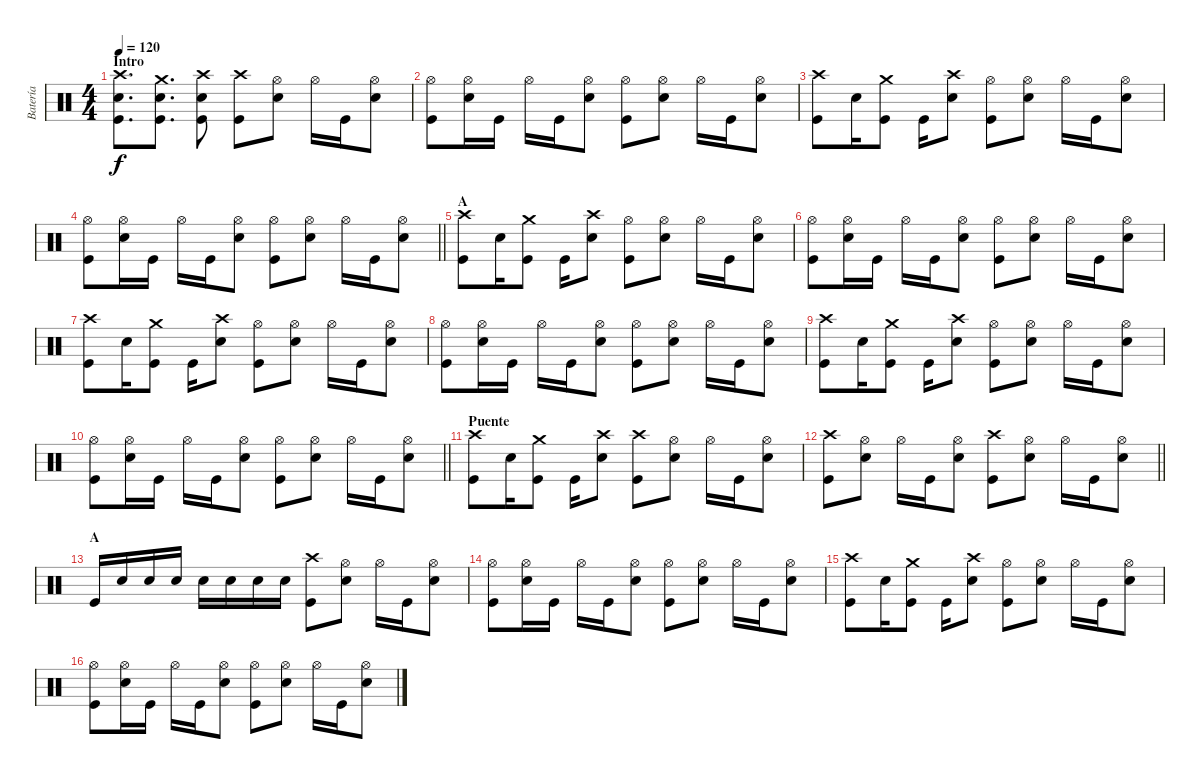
\track ("Batería" "Batería") {instrument percussion}
\staff {score}
\articulation defaults
\ts (4 4)
\section ("" "Intro")
\tempo 120
\clef neutral
\ks c
("Crash high (hit)" "Snare (hit) 2" "Kick (hit)").8{d dy f} ("Crash medium (hit)" "Snare (hit) 2" "Kick (hit)").8{d} ("Crash high (hit)" "Snare (hit) 2" "Kick (hit)").8 ("Crash high (hit)" "Kick (hit)").8 ("Hi-Hat (open)" "Snare (hit) 2").8 "Hi-Hat (open)".16 "Kick (hit)".16 ("Hi-Hat (open)" "Snare (hit) 2").8 |
("Hi-Hat (open)" "Kick (hit)").8 ("Hi-Hat (open)" "Snare (hit) 2").16 "Kick (hit)".16 "Hi-Hat (open)".16 "Kick (hit)".16 ("Hi-Hat (open)" "Snare (hit) 2").8 ("Hi-Hat (open)" "Kick (hit)").8 ("Hi-Hat (open)" "Snare (hit) 2").8 "Hi-Hat (open)".16 "Kick (hit)".16 ("Hi-Hat (open)" "Snare (hit) 2").8 |
("Crash high (hit)" "Kick (hit)").8 "Snare (hit) 2".16 ("Crash medium (hit)" "Kick (hit)").8 "Kick (hit)".16 ("Crash high (hit)" "Snare (hit) 2").8 ("Hi-Hat (open)" "Kick (hit)").8 ("Hi-Hat (open)" "Snare (hit) 2").8 "Hi-Hat (open)".16 "Kick (hit)".16 ("Hi-Hat (open)" "Snare (hit) 2").8 |
\barLineRight lightlight
("Hi-Hat (open)" "Kick (hit)").8 ("Hi-Hat (open)" "Snare (hit) 2").16 "Kick (hit)".16 "Hi-Hat (open)".16 "Kick (hit)".16 ("Hi-Hat (open)" "Snare (hit) 2").8 ("Hi-Hat (open)" "Kick (hit)").8 ("Hi-Hat (open)" "Snare (hit) 2").8 "Hi-Hat (open)".16 "Kick (hit)".16 ("Hi-Hat (open)" "Snare (hit) 2").8 |
\section ("" "A")
("Crash high (hit)" "Kick (hit)").8 "Snare (hit) 2".16 ("Crash medium (hit)" "Kick (hit)").8 "Kick (hit)".16 ("Crash high (hit)" "Snare (hit) 2").8 ("Hi-Hat (open)" "Kick (hit)").8 ("Hi-Hat (open)" "Snare (hit) 2").8 "Hi-Hat (open)".16 "Kick (hit)".16 ("Hi-Hat (open)" "Snare (hit) 2").8 |
("Hi-Hat (open)" "Kick (hit)").8 ("Hi-Hat (open)" "Snare (hit) 2").16 "Kick (hit)".16 "Hi-Hat (open)".16 "Kick (hit)".16 ("Hi-Hat (open)" "Snare (hit) 2").8 ("Hi-Hat (open)" "Kick (hit)").8 ("Hi-Hat (open)" "Snare (hit) 2").8 "Hi-Hat (open)".16 "Kick (hit)".16 ("Hi-Hat (open)" "Snare (hit) 2").8 |
("Crash high (hit)" "Kick (hit)").8 "Snare (hit) 2".16 ("Crash medium (hit)" "Kick (hit)").8 "Kick (hit)".16 ("Crash high (hit)" "Snare (hit) 2").8 ("Hi-Hat (open)" "Kick (hit)").8 ("Hi-Hat (open)" "Snare (hit) 2").8 "Hi-Hat (open)".16 "Kick (hit)".16 ("Hi-Hat (open)" "Snare (hit) 2").8 |
("Hi-Hat (open)" "Kick (hit)").8 ("Hi-Hat (open)" "Snare (hit) 2").16 "Kick (hit)".16 "Hi-Hat (open)".16 "Kick (hit)".16 ("Hi-Hat (open)" "Snare (hit) 2").8 ("Hi-Hat (open)" "Kick (hit)").8 ("Hi-Hat (open)" "Snare (hit) 2").8 "Hi-Hat (open)".16 "Kick (hit)".16 ("Hi-Hat (open)" "Snare (hit) 2").8 |
("Crash high (hit)" "Kick (hit)").8 "Snare (hit) 2".16 ("Crash medium (hit)" "Kick (hit)").8 "Kick (hit)".16 ("Crash high (hit)" "Snare (hit) 2").8 ("Hi-Hat (open)" "Kick (hit)").8 ("Hi-Hat (open)" "Snare (hit) 2").8 "Hi-Hat (open)".16 "Kick (hit)".16 ("Hi-Hat (open)" "Snare (hit) 2").8 |
\barLineRight lightlight
("Hi-Hat (open)" "Kick (hit)").8 ("Hi-Hat (open)" "Snare (hit) 2").16 "Kick (hit)".16 "Hi-Hat (open)".16 "Kick (hit)".16 ("Hi-Hat (open)" "Snare (hit) 2").8 ("Hi-Hat (open)" "Kick (hit)").8 ("Hi-Hat (open)" "Snare (hit) 2").8 "Hi-Hat (open)".16 "Kick (hit)".16 ("Hi-Hat (open)" "Snare (hit) 2").8 |
\section ("" "Puente")
("Crash high (hit)" "Kick (hit)").8 "Snare (hit) 2".16 ("Crash medium (hit)" "Kick (hit)").8 "Kick (hit)".16 ("Crash high (hit)" "Snare (hit) 2").8 ("Crash high (hit)" "Kick (hit)").8 ("Hi-Hat (open)" "Snare (hit) 2").8 "Hi-Hat (open)".16 "Kick (hit)".16 ("Hi-Hat (open)" "Snare (hit) 2").8 |
\barLineRight lightlight
("Crash high (hit)" "Kick (hit)").8 ("Hi-Hat (open)" "Snare (hit) 2").8 "Hi-Hat (open)".16 "Kick (hit)".16 ("Hi-Hat (open)" "Snare (hit) 2").8 ("Crash high (hit)" "Kick (hit)").8 ("Hi-Hat (open)" "Snare (hit) 2").8 "Hi-Hat (open)".16 "Kick (hit)".16 ("Hi-Hat (open)" "Snare (hit) 2").8 |
\section ("" "A")
"Kick (hit)".16 "Snare (hit) 2".16 "Snare (hit) 2".16 "Snare (hit) 2".16 "Snare (hit) 2".16 "Snare (hit) 2".16 "Snare (hit) 2".16 "Snare (hit) 2".16 ("Crash high (hit)" "Kick (hit)").8 ("Hi-Hat (open)" "Snare (hit) 2").8 "Hi-Hat (open)".16 "Kick (hit)".16 ("Hi-Hat (open)" "Snare (hit) 2").8 |
("Hi-Hat (open)" "Kick (hit)").8 ("Hi-Hat (open)" "Snare (hit) 2").16 "Kick (hit)".16 "Hi-Hat (open)".16 "Kick (hit)".16 ("Hi-Hat (open)" "Snare (hit) 2").8 ("Hi-Hat (open)" "Kick (hit)").8 ("Hi-Hat (open)" "Snare (hit) 2").8 "Hi-Hat (open)".16 "Kick (hit)".16 ("Hi-Hat (open)" "Snare (hit) 2").8 |
("Crash high (hit)" "Kick (hit)").8 "Snare (hit) 2".16 ("Crash medium (hit)" "Kick (hit)").8 "Kick (hit)".16 ("Crash high (hit)" "Snare (hit) 2").8 ("Hi-Hat (open)" "Kick (hit)").8 ("Hi-Hat (open)" "Snare (hit) 2").8 "Hi-Hat (open)".16 "Kick (hit)".16 ("Hi-Hat (open)" "Snare (hit) 2").8 |
("Hi-Hat (open)" "Kick (hit)").8 ("Hi-Hat (open)" "Snare (hit) 2").16 "Kick (hit)".16 "Hi-Hat (open)".16 "Kick (hit)".16 ("Hi-Hat (open)" "Snare (hit) 2").8 ("Hi-Hat (open)" "Kick (hit)").8 ("Hi-Hat (open)" "Snare (hit) 2").8 "Hi-Hat (open)".16 "Kick (hit)".16 ("Hi-Hat (open)" "Snare (hit) 2").8
